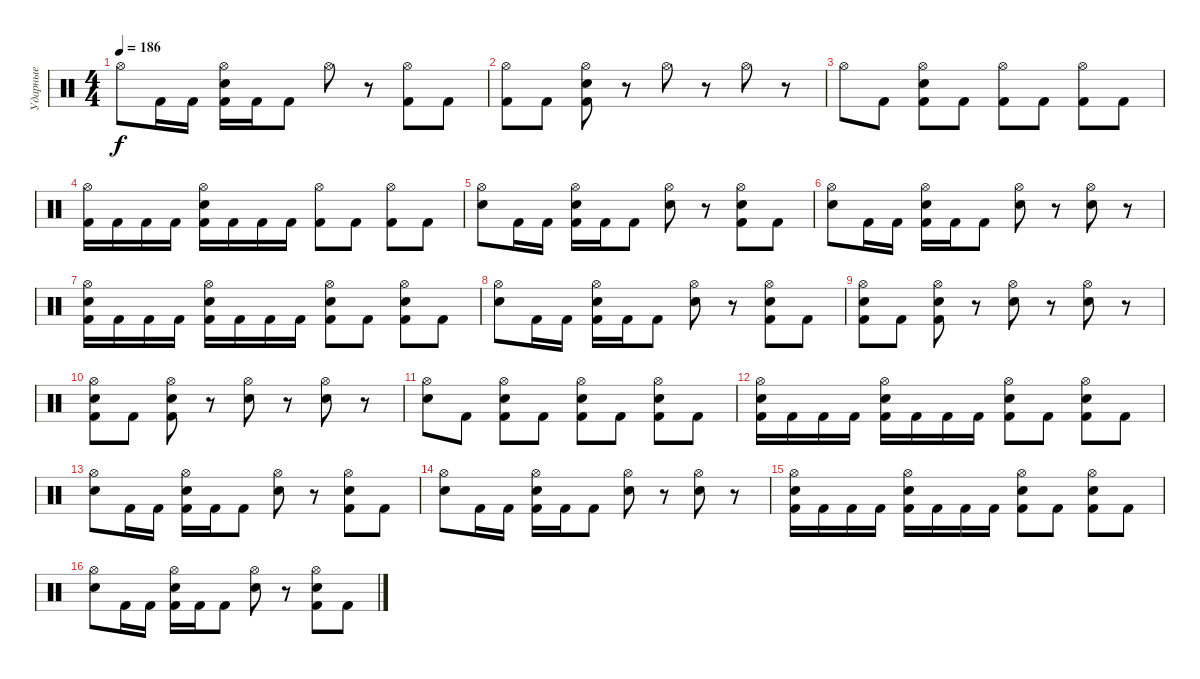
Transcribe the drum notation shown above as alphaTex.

\track ("Ударные" "Ударные") {instrument percussion}
\staff {score}
\articulation defaults
\ts (4 4)
\tempo 186
\clef neutral
\ks c "Hi-Hat (open)".8{dy f} "Kick (hit) 2".16 "Kick (hit) 2".16
("Hi-Hat (open)" "Snare (hit) 2" "Kick (hit) 2").16 "Kick (hit) 2".16 "Kick (hit) 2".8 "Hi-Hat (open)".8 r.8 ("Hi-Hat (open)" "Kick (hit) 2").8 "Kick (hit) 2".8 |
("Hi-Hat (open)" "Kick (hit) 2").8 "Kick (hit) 2".8 ("Hi-Hat (open)" "Snare (hit) 2" "Kick (hit) 2").8 r.8 "Hi-Hat (open)".8 r.8 "Hi-Hat (open)".8 r.8 |
"Hi-Hat (open)".8 "Kick (hit) 2".8 ("Hi-Hat (open)" "Snare (hit) 2" "Kick (hit) 2").8 "Kick (hit) 2".8 ("Hi-Hat (open)" "Kick (hit) 2").8 "Kick (hit) 2".8 ("Hi-Hat (open)" "Kick (hit) 2").8 "Kick (hit) 2".8 |
("Hi-Hat (open)" "Kick (hit) 2").16 "Kick (hit) 2".16 "Kick (hit) 2".16 "Kick (hit) 2".16 ("Hi-Hat (open)" "Snare (hit) 2" "Kick (hit) 2").16 "Kick (hit) 2".16 "Kick (hit) 2".16 "Kick (hit) 2".16 ("Hi-Hat (open)" "Kick (hit) 2").8 "Kick (hit) 2".8 ("Hi-Hat (open)" "Kick (hit) 2").8 "Kick (hit) 2".8 |
("Hi-Hat (open)" "Snare (hit) 2").8 "Kick (hit) 2".16 "Kick (hit) 2".16 ("Hi-Hat (open)" "Snare (hit) 2" "Kick (hit) 2").16 "Kick (hit) 2".16 "Kick (hit) 2".8 ("Hi-Hat (open)" "Snare (hit) 2").8 r.8 ("Hi-Hat (open)" "Snare (hit) 2" "Kick (hit) 2").8 "Kick (hit) 2".8 |
("Hi-Hat (open)" "Snare (hit) 2").8 "Kick (hit) 2".16 "Kick (hit) 2".16 ("Hi-Hat (open)" "Snare (hit) 2" "Kick (hit) 2").16 "Kick (hit) 2".16 "Kick (hit) 2".8 ("Hi-Hat (open)" "Snare (hit) 2").8 r.8 ("Hi-Hat (open)" "Snare (hit) 2").8 r.8 |
("Hi-Hat (open)" "Snare (hit) 2" "Kick (hit) 2").16 "Kick (hit) 2".16 "Kick (hit) 2".16 "Kick (hit) 2".16 ("Hi-Hat (open)" "Snare (hit) 2" "Kick (hit) 2").16 "Kick (hit) 2".16 "Kick (hit) 2".16 "Kick (hit) 2".16 ("Hi-Hat (open)" "Snare (hit) 2" "Kick (hit) 2").8 "Kick (hit) 2".8 ("Hi-Hat (open)" "Snare (hit) 2" "Kick (hit) 2").8 "Kick (hit) 2".8 |
("Hi-Hat (open)" "Snare (hit) 2").8 "Kick (hit) 2".16 "Kick (hit) 2".16 ("Hi-Hat (open)" "Snare (hit) 2" "Kick (hit) 2").16 "Kick (hit) 2".16 "Kick (hit) 2".8 ("Hi-Hat (open)" "Snare (hit) 2").8 r.8 ("Hi-Hat (open)" "Snare (hit) 2" "Kick (hit) 2").8 "Kick (hit) 2".8 |
("Hi-Hat (open)" "Snare (hit) 2" "Kick (hit) 2").8 "Kick (hit) 2".8 ("Hi-Hat (open)" "Snare (hit) 2" "Kick (hit) 2").8 r.8 ("Hi-Hat (open)" "Snare (hit) 2").8 r.8 ("Hi-Hat (open)" "Snare (hit) 2").8 r.8 |
("Hi-Hat (open)" "Snare (hit) 2" "Kick (hit) 2").8 "Kick (hit) 2".8 ("Hi-Hat (open)" "Snare (hit) 2" "Kick (hit) 2").8 r.8 ("Hi-Hat (open)" "Snare (hit) 2").8 r.8 ("Hi-Hat (open)" "Snare (hit) 2").8 r.8 |
("Hi-Hat (open)" "Snare (hit) 2").8 "Kick (hit) 2".8 ("Hi-Hat (open)" "Snare (hit) 2" "Kick (hit) 2").8 "Kick (hit) 2".8 ("Hi-Hat (open)" "Snare (hit) 2" "Kick (hit) 2").8 "Kick (hit) 2".8 ("Hi-Hat (open)" "Snare (hit) 2" "Kick (hit) 2").8 "Kick (hit) 2".8 |
("Hi-Hat (open)" "Snare (hit) 2" "Kick (hit) 2").16 "Kick (hit) 2".16 "Kick (hit) 2".16 "Kick (hit) 2".16 ("Hi-Hat (open)" "Snare (hit) 2" "Kick (hit) 2").16 "Kick (hit) 2".16 "Kick (hit) 2".16 "Kick (hit) 2".16 ("Hi-Hat (open)" "Snare (hit) 2" "Kick (hit) 2").8 "Kick (hit) 2".8 ("Hi-Hat (open)" "Snare (hit) 2" "Kick (hit) 2").8 "Kick (hit) 2".8 |
("Hi-Hat (open)" "Snare (hit) 2").8 "Kick (hit) 2".16 "Kick (hit) 2".16 ("Hi-Hat (open)" "Snare (hit) 2" "Kick (hit) 2").16 "Kick (hit) 2".16 "Kick (hit) 2".8 ("Hi-Hat (open)" "Snare (hit) 2").8 r.8 ("Hi-Hat (open)" "Snare (hit) 2" "Kick (hit) 2").8 "Kick (hit) 2".8 |
("Hi-Hat (open)" "Snare (hit) 2").8 "Kick (hit) 2".16 "Kick (hit) 2".16 ("Hi-Hat (open)" "Snare (hit) 2" "Kick (hit) 2").16 "Kick (hit) 2".16 "Kick (hit) 2".8 ("Hi-Hat (open)" "Snare (hit) 2").8 r.8 ("Hi-Hat (open)" "Snare (hit) 2").8 r.8 |
("Hi-Hat (open)" "Snare (hit) 2" "Kick (hit) 2").16 "Kick (hit) 2".16 "Kick (hit) 2".16 "Kick (hit) 2".16 ("Hi-Hat (open)" "Snare (hit) 2" "Kick (hit) 2").16 "Kick (hit) 2".16 "Kick (hit) 2".16 "Kick (hit) 2".16 ("Hi-Hat (open)" "Snare (hit) 2" "Kick (hit) 2").8 "Kick (hit) 2".8 ("Hi-Hat (open)" "Snare (hit) 2" "Kick (hit) 2").8 "Kick (hit) 2".8 |
("Hi-Hat (open)" "Snare (hit) 2").8 "Kick (hit) 2".16 "Kick (hit) 2".16 ("Hi-Hat (open)" "Snare (hit) 2" "Kick (hit) 2").16 "Kick (hit) 2".16 "Kick (hit) 2".8 ("Hi-Hat (open)" "Snare (hit) 2").8 r.8 ("Hi-Hat (open)" "Snare (hit) 2" "Kick (hit) 2").8 "Kick (hit) 2".8
